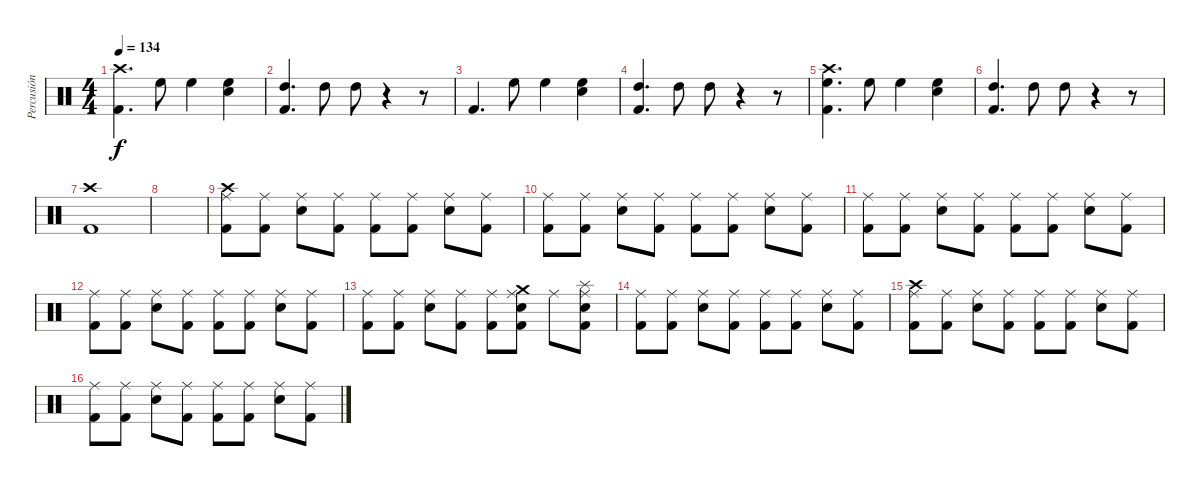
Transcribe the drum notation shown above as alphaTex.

\track ("Percusión" "Percusión") {instrument percussion}
\staff {score}
\articulation defaults
\ts (4 4)
\tempo 134
\clef neutral
\ks c
("Crash high (hit)" "Kick (hit) 2").4{d dy f} "High Floor Tom (hit)".8 "High Floor Tom (hit)".4 ("High Floor Tom (hit)" "Snare (hit) 2").4 |
("High Tom (hit)" "Kick (hit) 2").4{d} "High Tom (hit)".8 "High Tom (hit)".8 r.4 r.8 |
"Kick (hit) 2".4{d} "High Floor Tom (hit)".8 "High Floor Tom (hit)".4 ("High Floor Tom (hit)" "Snare (hit) 2").4 |
("High Tom (hit)" "Kick (hit) 2").4{d} "High Tom (hit)".8 "High Tom (hit)".8 r.4 r.8 |
("Crash high (hit)" "High Floor Tom (hit)" "Kick (hit) 2").4{d} "High Floor Tom (hit)".8 "High Floor Tom (hit)".4 ("High Floor Tom (hit)" "Snare (hit) 2").4 |
("High Tom (hit)" "Kick (hit) 2").4{d} "High Tom (hit)".8 "High Tom (hit)".8 r.4 r.8 |
("Crash high (hit)" "Kick (hit) 2").1 |
|
("Crash high (hit)" "Ride (middle)" "Kick (hit) 2").8 ("Ride (middle)" "Kick (hit) 2").8 ("Ride (middle)" "Snare (hit) 2").8 ("Ride (middle)" "Kick (hit) 2").8 ("Ride (middle)" "Kick (hit) 2").8 ("Ride (middle)" "Kick (hit) 2").8 ("Ride (middle)" "Snare (hit) 2").8 ("Ride (middle)" "Kick (hit) 2").8 |
("Ride (middle)" "Kick (hit) 2").8 ("Ride (middle)" "Kick (hit) 2").8 ("Ride (middle)" "Snare (hit) 2").8 ("Ride (middle)" "Kick (hit) 2").8 ("Ride (middle)" "Kick (hit) 2").8 ("Ride (middle)" "Kick (hit) 2").8 ("Ride (middle)" "Snare (hit) 2").8 ("Ride (middle)" "Kick (hit) 2").8 |
("Ride (middle)" "Kick (hit) 2").8 ("Ride (middle)" "Kick (hit) 2").8 ("Ride (middle)" "Snare (hit) 2").8 ("Ride (middle)" "Kick (hit) 2").8 ("Ride (middle)" "Kick (hit) 2").8 ("Ride (middle)" "Kick (hit) 2").8 ("Ride (middle)" "Snare (hit) 2").8 ("Ride (middle)" "Kick (hit) 2").8 |
("Ride (middle)" "Kick (hit) 2").8 ("Ride (middle)" "Kick (hit) 2").8 ("Ride (middle)" "Snare (hit) 2").8 ("Ride (middle)" "Kick (hit) 2").8 ("Ride (middle)" "Kick (hit) 2").8 ("Ride (middle)" "Kick (hit) 2").8 ("Ride (middle)" "Snare (hit) 2").8 ("Ride (middle)" "Kick (hit) 2").8 |
("Ride (middle)" "Kick (hit) 2").8 ("Ride (middle)" "Kick (hit) 2").8 ("Ride (middle)" "Snare (hit) 2").8 ("Ride (middle)" "Kick (hit) 2").8 ("Ride (middle)" "Kick (hit) 2").8 ("Crash medium (hit)" "Ride (middle)" "Snare (hit) 2" "Kick (hit) 2").8 "Ride (middle)".8 ("Splash (hit)" "Ride (middle)" "Snare (hit) 2" "Kick (hit) 2").8 |
("Ride (middle)" "Kick (hit) 2").8 ("Ride (middle)" "Kick (hit) 2").8 ("Ride (middle)" "Snare (hit) 2").8 ("Ride (middle)" "Kick (hit) 2").8 ("Ride (middle)" "Kick (hit) 2").8 ("Ride (middle)" "Kick (hit) 2").8 ("Ride (middle)" "Snare (hit) 2").8 ("Ride (middle)" "Kick (hit) 2").8 |
("Crash high (hit)" "Ride (middle)" "Kick (hit) 2").8 ("Ride (middle)" "Kick (hit) 2").8 ("Ride (middle)" "Snare (hit) 2").8 ("Ride (middle)" "Kick (hit) 2").8 ("Ride (middle)" "Kick (hit) 2").8 ("Ride (middle)" "Kick (hit) 2").8 ("Ride (middle)" "Snare (hit) 2").8 ("Ride (middle)" "Kick (hit) 2").8 |
("Ride (middle)" "Kick (hit) 2").8 ("Ride (middle)" "Kick (hit) 2").8 ("Ride (middle)" "Snare (hit) 2").8 ("Ride (middle)" "Kick (hit) 2").8 ("Ride (middle)" "Kick (hit) 2").8 ("Ride (middle)" "Kick (hit) 2").8 ("Ride (middle)" "Snare (hit) 2").8 ("Ride (middle)" "Kick (hit) 2").8
